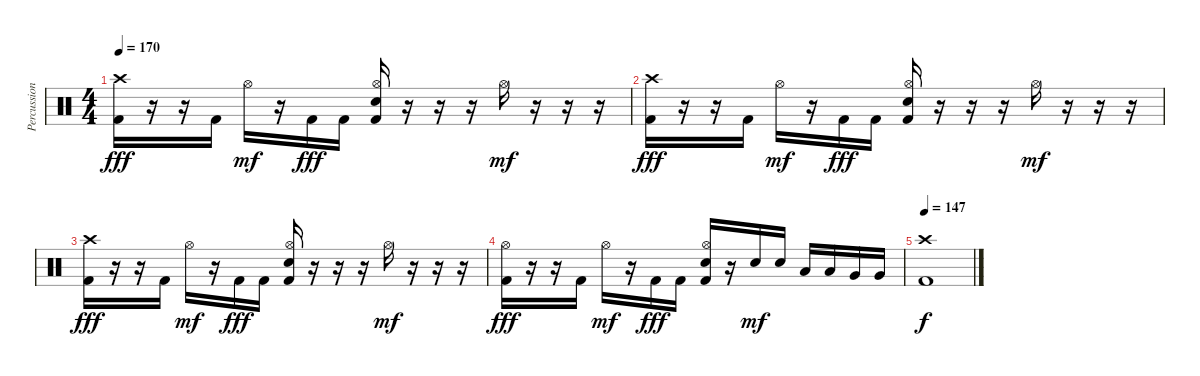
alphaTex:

\track ("Percussion" "Percussion") {instrument percussion}
\staff {score}
\articulation defaults
\ts (4 4)
\tempo 170
\clef neutral
\ks c
("Crash high (hit)" "Kick (hit) 2").16{dy fff} r.16 r.16 "Kick (hit) 2".16 "Hi-Hat (open)".16{dy mf} r.16 "Kick (hit) 2".16{dy fff} "Kick (hit) 2".16 ("Hi-Hat (open)" "Electric Snare (hit)" "Kick (hit) 2").16 r.16 r.16 r.16 "Hi-Hat (open)".16{dy mf} r.16 r.16 r.16 |
("Crash high (hit)" "Kick (hit) 2").16{dy fff} r.16 r.16 "Kick (hit) 2".16 "Hi-Hat (open)".16{dy mf} r.16 "Kick (hit) 2".16{dy fff} "Kick (hit) 2".16 ("Hi-Hat (open)" "Electric Snare (hit)" "Kick (hit) 2").16 r.16 r.16 r.16 "Hi-Hat (open)".16{dy mf} r.16 r.16 r.16 |
("Crash high (hit)" "Kick (hit) 2").16{dy fff} r.16 r.16 "Kick (hit) 2".16 "Hi-Hat (open)".16{dy mf} r.16 "Kick (hit) 2".16{dy fff} "Kick (hit) 2".16 ("Hi-Hat (open)" "Electric Snare (hit)" "Kick (hit) 2").16 r.16 r.16 r.16 "Hi-Hat (open)".16{dy mf} r.16 r.16 r.16 |
("Hi-Hat (open)" "Kick (hit) 2").16{dy fff} r.16 r.16 "Kick (hit) 2".16 "Hi-Hat (open)".16{dy mf} r.16 "Kick (hit) 2".16{dy fff} "Kick (hit) 2".16 ("Hi-Hat (open)" "Electric Snare (hit)" "Kick (hit) 2").16 r.16 "Electric Snare (hit)".16{dy mf} "Electric Snare (hit)".16 "Low Tom (hit)".16 "Low Tom (hit)".16 "Very Low Tom (hit)".16 "Very Low Tom (hit)".16 |
\tempo 147
("Crash high (hit)" "Kick (hit) 2").1{dy f}
